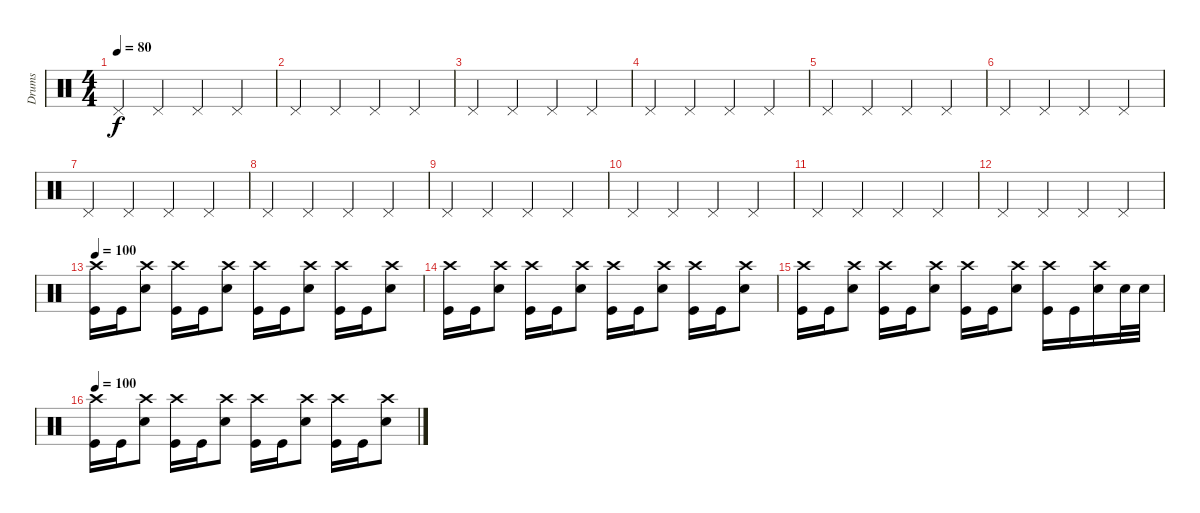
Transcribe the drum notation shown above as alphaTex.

\track ("Drums" "Drums") {instrument percussion}
\staff {score}
\articulation defaults
\ts (4 4)
\tempo 80
\clef neutral
\ks c "Pedal Hi-Hat (hit)".4{dy f} "Pedal Hi-Hat (hit)".4 "Pedal Hi-Hat (hit)".4 "Pedal Hi-Hat (hit)".4
|
"Pedal Hi-Hat (hit)".4 "Pedal Hi-Hat (hit)".4 "Pedal Hi-Hat (hit)".4 "Pedal Hi-Hat (hit)".4 |
"Pedal Hi-Hat (hit)".4 "Pedal Hi-Hat (hit)".4 "Pedal Hi-Hat (hit)".4 "Pedal Hi-Hat (hit)".4 |
"Pedal Hi-Hat (hit)".4 "Pedal Hi-Hat (hit)".4 "Pedal Hi-Hat (hit)".4 "Pedal Hi-Hat (hit)".4 |
"Pedal Hi-Hat (hit)".4 "Pedal Hi-Hat (hit)".4 "Pedal Hi-Hat (hit)".4 "Pedal Hi-Hat (hit)".4 |
"Pedal Hi-Hat (hit)".4 "Pedal Hi-Hat (hit)".4 "Pedal Hi-Hat (hit)".4 "Pedal Hi-Hat (hit)".4 |
"Pedal Hi-Hat (hit)".4 "Pedal Hi-Hat (hit)".4 "Pedal Hi-Hat (hit)".4 "Pedal Hi-Hat (hit)".4 |
"Pedal Hi-Hat (hit)".4 "Pedal Hi-Hat (hit)".4 "Pedal Hi-Hat (hit)".4 "Pedal Hi-Hat (hit)".4 |
"Pedal Hi-Hat (hit)".4 "Pedal Hi-Hat (hit)".4 "Pedal Hi-Hat (hit)".4 "Pedal Hi-Hat (hit)".4 |
"Pedal Hi-Hat (hit)".4 "Pedal Hi-Hat (hit)".4 "Pedal Hi-Hat (hit)".4 "Pedal Hi-Hat (hit)".4 |
"Pedal Hi-Hat (hit)".4 "Pedal Hi-Hat (hit)".4 "Pedal Hi-Hat (hit)".4 "Pedal Hi-Hat (hit)".4 |
"Pedal Hi-Hat (hit)".4 "Pedal Hi-Hat (hit)".4 "Pedal Hi-Hat (hit)".4 "Pedal Hi-Hat (hit)".4 |
\tempo 100
("Crash high (hit)" "Kick (hit)").16 "Kick (hit)".16 ("Crash high (hit)" "Snare (hit) 2").8 ("Crash high (hit)" "Kick (hit)").16 "Kick (hit)".16 ("Crash high (hit)" "Snare (hit) 2").8 ("Crash high (hit)" "Kick (hit)").16 "Kick (hit)".16 ("Crash high (hit)" "Snare (hit) 2").8 ("Crash high (hit)" "Kick (hit)").16 "Kick (hit)".16 ("Crash high (hit)" "Snare (hit) 2").8 |
("Crash high (hit)" "Kick (hit)").16 "Kick (hit)".16 ("Crash high (hit)" "Snare (hit) 2").8 ("Crash high (hit)" "Kick (hit)").16 "Kick (hit)".16 ("Crash high (hit)" "Snare (hit) 2").8 ("Crash high (hit)" "Kick (hit)").16 "Kick (hit)".16 ("Crash high (hit)" "Snare (hit) 2").8 ("Crash high (hit)" "Kick (hit)").16 "Kick (hit)".16 ("Crash high (hit)" "Snare (hit) 2").8 |
("Crash high (hit)" "Kick (hit)").16 "Kick (hit)".16 ("Crash high (hit)" "Snare (hit) 2").8 ("Crash high (hit)" "Kick (hit)").16 "Kick (hit)".16 ("Crash high (hit)" "Snare (hit) 2").8 ("Crash high (hit)" "Kick (hit)").16 "Kick (hit)".16 ("Crash high (hit)" "Snare (hit) 2").8 ("Crash high (hit)" "Kick (hit)").16 "Kick (hit)".16 ("Crash high (hit)" "Snare (hit) 2").16 "Snare (hit) 2".32 "Snare (hit) 2".32 |
\tempo 100
("Crash high (hit)" "Kick (hit)").16 "Kick (hit)".16 ("Crash high (hit)" "Snare (hit) 2").8 ("Crash high (hit)" "Kick (hit)").16 "Kick (hit)".16 ("Crash high (hit)" "Snare (hit) 2").8 ("Crash high (hit)" "Kick (hit)").16 "Kick (hit)".16 ("Crash high (hit)" "Snare (hit) 2").8 ("Crash high (hit)" "Kick (hit)").16 "Kick (hit)".16 ("Crash high (hit)" "Snare (hit) 2").8
